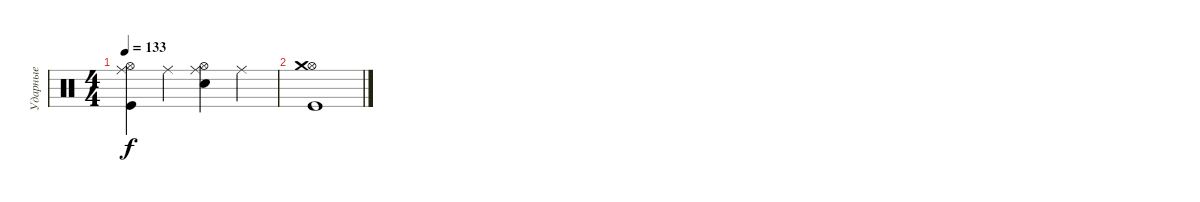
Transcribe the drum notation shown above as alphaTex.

\track ("Ударные" "Ударные") {instrument percussion}
\staff {score}
\articulation defaults
\ts (4 4)
\tempo 133
\clef neutral
\ks c
("Hi-Hat (open)" "Kick (hit)" "Ride (middle)").4{dy f} "Ride (middle)".4 ("Hi-Hat (open)" "Electric Snare (hit)" "Ride (middle)").4 "Ride (middle)".4 |
("Hi-Hat (open)" "Kick (hit)" "Crash medium (hit)").1
